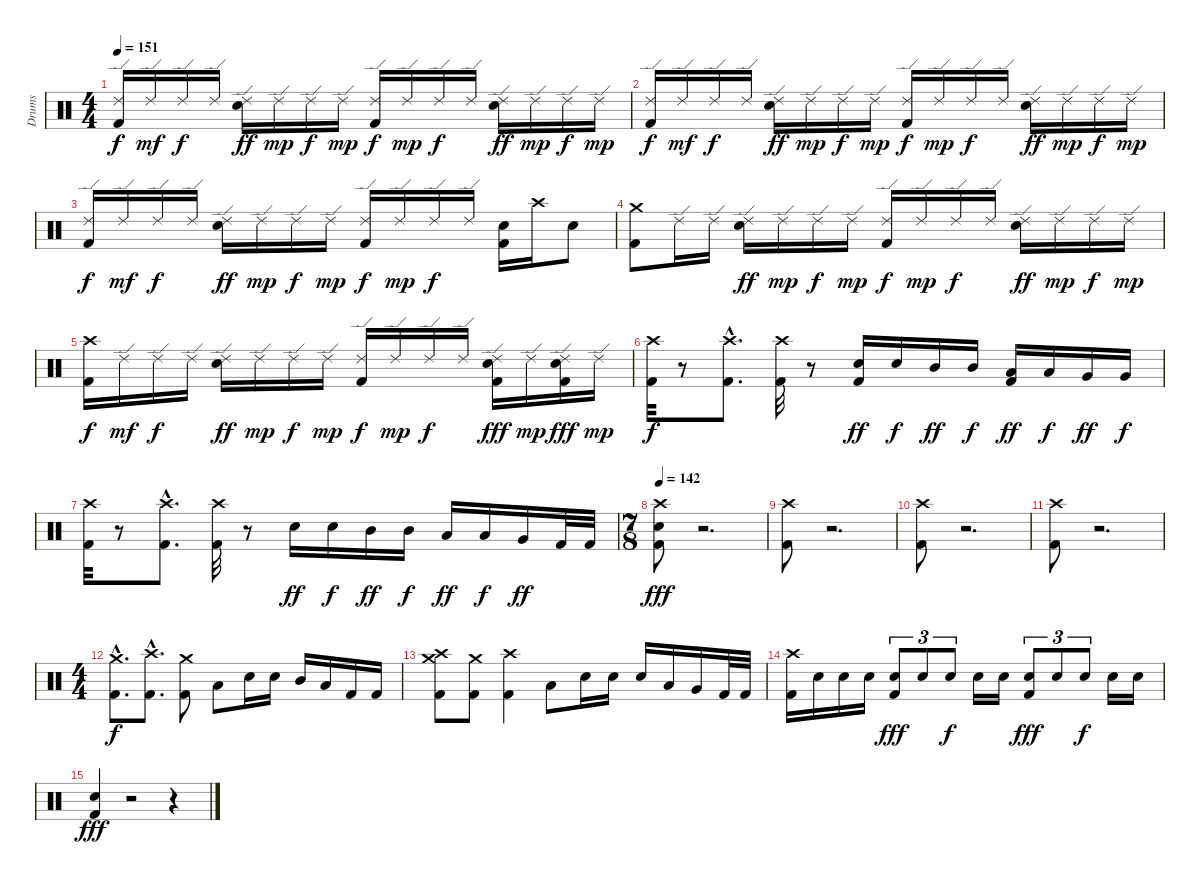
\track ("Drums" "Drums") {instrument percussion}
\staff {score}
\articulation defaults
\ts (4 4)
\tempo 151
\clef neutral
\ks c
("Ride (edge) 2" "Kick (hit) 2").16{dy f} "Ride (edge) 2".16{dy mf} "Ride (edge) 2".16{dy f} "Ride (edge) 2".16 ("Ride (edge) 2" "Electric Snare (hit)").16{dy ff} "Ride (edge) 2".16{dy mp} "Ride (edge) 2".16{dy f} "Ride (edge) 2".16{dy mp} ("Ride (edge) 2" "Kick (hit) 2").16{dy f} "Ride (edge) 2".16{dy mp} "Ride (edge) 2".16{dy f} "Ride (edge) 2".16 ("Ride (edge) 2" "Electric Snare (hit)").16{dy ff} "Ride (edge) 2".16{dy mp} "Ride (edge) 2".16{dy f} "Ride (edge) 2".16{dy mp} |
("Ride (edge) 2" "Kick (hit) 2").16{dy f} "Ride (edge) 2".16{dy mf} "Ride (edge) 2".16{dy f} "Ride (edge) 2".16 ("Ride (edge) 2" "Electric Snare (hit)").16{dy ff} "Ride (edge) 2".16{dy mp} "Ride (edge) 2".16{dy f} "Ride (edge) 2".16{dy mp} ("Ride (edge) 2" "Kick (hit) 2").16{dy f} "Ride (edge) 2".16{dy mp} "Ride (edge) 2".16{dy f} "Ride (edge) 2".16 ("Ride (edge) 2" "Electric Snare (hit)").16{dy ff} "Ride (edge) 2".16{dy mp} "Ride (edge) 2".16{dy f} "Ride (edge) 2".16{dy mp} |
("Ride (edge) 2" "Kick (hit) 2").16{dy f} "Ride (edge) 2".16{dy mf} "Ride (edge) 2".16{dy f} "Ride (edge) 2".16 ("Ride (edge) 2" "Electric Snare (hit)").16{dy ff} "Ride (edge) 2".16{dy mp} "Ride (edge) 2".16{dy f} "Ride (edge) 2".16{dy mp} ("Ride (edge) 2" "Kick (hit) 2").16{dy f} "Ride (edge) 2".16{dy mp} "Ride (edge) 2".16{dy f} "Ride (edge) 2".16 ("Electric Snare (hit)" "Kick (hit) 2").16 "Crash high (hit)".16 "Electric Snare (hit)".8 |
("Crash medium (hit)" "Kick (hit) 2").8 "Ride (edge) 2".16 "Ride (edge) 2".16 ("Ride (edge) 2" "Electric Snare (hit)").16{dy ff} "Ride (edge) 2".16{dy mp} "Ride (edge) 2".16{dy f} "Ride (edge) 2".16{dy mp} ("Ride (edge) 2" "Kick (hit) 2").16{dy f} "Ride (edge) 2".16{dy mp} "Ride (edge) 2".16{dy f} "Ride (edge) 2".16 ("Ride (edge) 2" "Electric Snare (hit)").16{dy ff} "Ride (edge) 2".16{dy mp} "Ride (edge) 2".16{dy f} "Ride (edge) 2".16{dy mp} |
("Crash high (hit)" "Kick (hit) 2").16{dy f} "Ride (edge) 2".16{dy mf} "Ride (edge) 2".16{dy f} "Ride (edge) 2".16 ("Ride (edge) 2" "Electric Snare (hit)").16{dy ff} "Ride (edge) 2".16{dy mp} "Ride (edge) 2".16{dy f} "Ride (edge) 2".16{dy mp} ("Ride (edge) 2" "Kick (hit) 2").16{dy f} "Ride (edge) 2".16{dy mp} "Ride (edge) 2".16{dy f} "Ride (edge) 2".16 ("Ride (edge) 2" "Electric Snare (hit)" "Kick (hit) 2").16{dy fff} "Ride (edge) 2".16{dy mp} ("Electric Snare (hit)" "Ride (edge) 2" "Kick (hit) 2").16{dy fff} "Ride (edge) 2".16{dy mp} |
("Crash high (hit)" "Kick (hit) 2").32{dy f} r.8 ("Kick (hit) 2"{hac} "Crash high (hit)"{hac}).8{d} ("Crash high (hit)" "Kick (hit) 2").32 r.8 ("Electric Snare (hit)" "Kick (hit) 2").16{dy ff} "Electric Snare (hit)".16{dy f} "Mid Tom (hit)".16{dy ff} "Mid Tom (hit)".16{dy f} ("Low Tom (hit)" "Kick (hit) 2").16{dy ff} "Low Tom (hit)".16{dy f} "Very Low Tom (hit)".16{dy ff} "Very Low Tom (hit)".16{dy f} |
("Kick (hit) 2" "Crash high (hit)").32 r.8 ("Kick (hit) 2"{hac} "Crash high (hit)"{hac}).8{d} ("Kick (hit) 2" "Crash high (hit)").32 r.8 "Electric Snare (hit)".16{dy ff} "Electric Snare (hit)".16{dy f} "Mid Tom (hit)".16{dy ff} "Mid Tom (hit)".16{dy f} "Low Tom (hit)".16{dy ff} "Low Tom (hit)".16{dy f} "Very Low Tom (hit)".16{dy ff} "Kick (hit) 2".32 "Kick (hit) 2".32 |
\ts (7 8)
\tempo 142
("Electric Snare (hit)" "Kick (hit) 2" "Crash high (hit)").8{dy fff} r.2{d} |
("Kick (hit) 2" "Crash high (hit)").8 r.2{d} |
("Kick (hit) 2" "Crash high (hit)").8 r.2{d} |
("Kick (hit) 2" "Crash high (hit)").8 r.2{d} |
\ts (4 4)
("Crash medium (hit)"{hac} "Kick (hit) 2"{hac}).8{d dy f} ("Crash high (hit)"{hac} "Kick (hit) 2"{hac}).8{d} ("Crash medium (hit)" "Kick (hit) 2").8 "Low Tom (hit)".8 "Electric Snare (hit)".16 "Electric Snare (hit)".16 "Mid Tom (hit)".16 "Low Tom (hit)".16 "Kick (hit) 2".16 "Kick (hit) 2".16 |
("Crash high (hit)" "Kick (hit) 2" "Crash medium (hit)").8 ("Crash medium (hit)" "Kick (hit) 2").8 ("Crash high (hit)" "Kick (hit) 2").4 "Low Tom (hit)".8 "Electric Snare (hit)".16 "Electric Snare (hit)".16 "Electric Snare (hit)".16 "Low Tom (hit)".16 "Very Low Tom (hit)".16 "Kick (hit) 2".32 "Kick (hit) 2".32 |
("Crash high (hit)" "Kick (hit) 2").16 "Electric Snare (hit)".16 "Electric Snare (hit)".16 "Electric Snare (hit)".16 ("Electric Snare (hit)" "Kick (hit) 2").8{tu (3 2) dy fff} "Electric Snare (hit)".8{tu (3 2)} "Electric Snare (hit)".8{tu (3 2) dy f} "Electric Snare (hit)".16 "Electric Snare (hit)".16 ("Electric Snare (hit)" "Kick (hit) 2").8{tu (3 2) dy fff} "Electric Snare (hit)".8{tu (3 2)} "Electric Snare (hit)".8{tu (3 2) dy f} "Electric Snare (hit)".16 "Electric Snare (hit)".16 |
("Electric Snare (hit)" "Kick (hit) 2").4{dy fff} r.2 r.4
